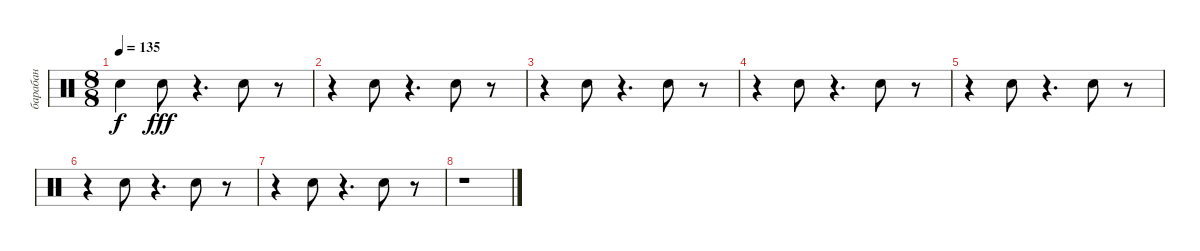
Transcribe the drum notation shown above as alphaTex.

\track ("барабан" "барабан") {instrument percussion}
\staff {score}
\articulation defaults
\ts (8 8)
\tempo 135
\clef neutral
\ks c "Snare (hit)"{t}.4{dy f} "Snare (hit) 2".8{dy fff}
r.4{d} "Snare (hit) 2".8 r.8 |
r.4 "Snare (hit) 2".8 r.4{d} "Snare (hit) 2".8 r.8 |
r.4 "Snare (hit) 2".8 r.4{d} "Snare (hit) 2".8 r.8 |
r.4 "Snare (hit) 2".8 r.4{d} "Snare (hit) 2".8 r.8 |
r.4 "Snare (hit) 2".8 r.4{d} "Snare (hit) 2".8 r.8 |
r.4 "Snare (hit) 2".8 r.4{d} "Snare (hit) 2".8 r.8 |
r.4 "Snare (hit) 2".8 r.4{d} "Snare (hit) 2".8 r.8 |
r.1
